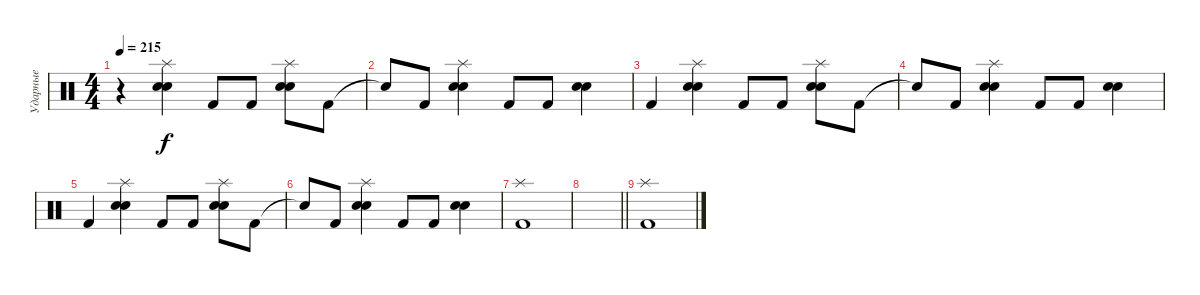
\track ("Ударные" "Ударные") {instrument percussion}
\staff {score}
\articulation defaults
\ts (4 4)
\tempo 215
\clef neutral
\ks c
r.4{dy f} ("Splash (hit)" "Electric Snare (hit)" "Snare (hit) 2").4 "Kick (hit) 2".8 "Kick (hit) 2".8 ("Splash (hit)" "Electric Snare (hit)" "Snare (hit) 2").8 "Kick (hit) 2".8 |
"Snare (hit)"{t}.8 "Kick (hit) 2".8 ("Splash (hit)" "Electric Snare (hit)" "Snare (hit) 2").4 "Kick (hit) 2".8 "Kick (hit) 2".8 ("Electric Snare (hit)" "Snare (hit) 2").4 |
"Kick (hit) 2".4 ("Splash (hit)" "Electric Snare (hit)" "Snare (hit) 2").4 "Kick (hit) 2".8 "Kick (hit) 2".8 ("Splash (hit)" "Electric Snare (hit)" "Snare (hit) 2").8 "Kick (hit) 2".8 |
"Snare (hit)"{t}.8 "Kick (hit) 2".8 ("Splash (hit)" "Electric Snare (hit)" "Snare (hit) 2").4 "Kick (hit) 2".8 "Kick (hit) 2".8 ("Electric Snare (hit)" "Snare (hit) 2").4 |
"Kick (hit) 2".4 ("Splash (hit)" "Electric Snare (hit)" "Snare (hit) 2").4 "Kick (hit) 2".8 "Kick (hit) 2".8 ("Splash (hit)" "Electric Snare (hit)" "Snare (hit) 2").8 "Kick (hit) 2".8 |
"Snare (hit)"{t}.8 "Kick (hit) 2".8 ("Splash (hit)" "Electric Snare (hit)" "Snare (hit) 2").4 "Kick (hit) 2".8 "Kick (hit) 2".8 ("Electric Snare (hit)" "Snare (hit) 2").4 |
("Splash (hit)" "Kick (hit) 2").1 |
\barLineRight lightlight
|
("Splash (hit)" "Kick (hit) 2").1
